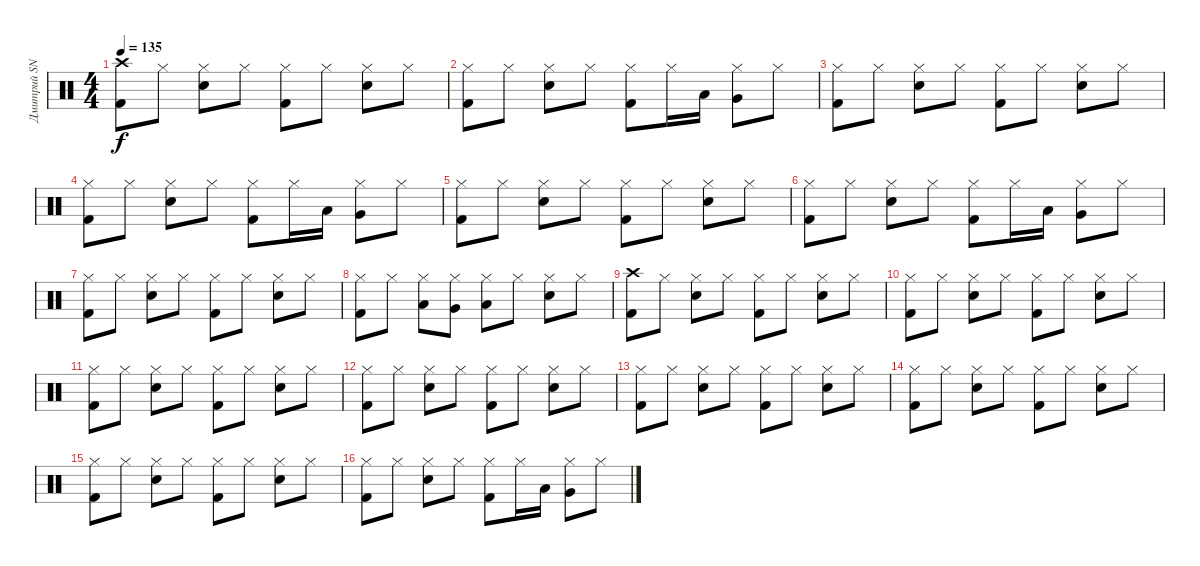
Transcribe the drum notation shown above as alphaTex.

\track ("Дмитрий SNAKE Хакимов" "Дмитрий SN") {instrument percussion}
\staff {score}
\articulation defaults
\ts (4 4)
\tempo 135
\clef neutral
\ks c
("Crash high (hit)" "Kick (hit) 2").8{dy f} "Hi-Hat (closed)".8 ("Hi-Hat (closed)" "Electric Snare (hit)").8 "Hi-Hat (closed)".8 ("Hi-Hat (closed)" "Kick (hit) 2").8 "Hi-Hat (closed)".8 ("Hi-Hat (closed)" "Electric Snare (hit)").8 "Hi-Hat (closed)".8 |
("Hi-Hat (closed)" "Kick (hit) 2").8 "Hi-Hat (closed)".8 ("Hi-Hat (closed)" "Electric Snare (hit)").8 "Hi-Hat (closed)".8 ("Hi-Hat (closed)" "Kick (hit) 2").8 "Hi-Hat (closed)".16 "Low Tom (hit)".16 ("Hi-Hat (closed)" "Very Low Tom (hit)").8 "Hi-Hat (closed)".8 |
("Hi-Hat (closed)" "Kick (hit) 2").8 "Hi-Hat (closed)".8 ("Hi-Hat (closed)" "Electric Snare (hit)").8 "Hi-Hat (closed)".8 ("Hi-Hat (closed)" "Kick (hit) 2").8 "Hi-Hat (closed)".8 ("Hi-Hat (closed)" "Electric Snare (hit)").8 "Hi-Hat (closed)".8 |
("Hi-Hat (closed)" "Kick (hit) 2").8 "Hi-Hat (closed)".8 ("Hi-Hat (closed)" "Electric Snare (hit)").8 "Hi-Hat (closed)".8 ("Hi-Hat (closed)" "Kick (hit) 2").8 "Hi-Hat (closed)".16 "Low Tom (hit)".16 ("Hi-Hat (closed)" "Very Low Tom (hit)").8 "Hi-Hat (closed)".8 |
("Hi-Hat (closed)" "Kick (hit) 2").8 "Hi-Hat (closed)".8 ("Hi-Hat (closed)" "Electric Snare (hit)").8 "Hi-Hat (closed)".8 ("Hi-Hat (closed)" "Kick (hit) 2").8 "Hi-Hat (closed)".8 ("Hi-Hat (closed)" "Electric Snare (hit)").8 "Hi-Hat (closed)".8 |
("Hi-Hat (closed)" "Kick (hit) 2").8 "Hi-Hat (closed)".8 ("Hi-Hat (closed)" "Electric Snare (hit)").8 "Hi-Hat (closed)".8 ("Hi-Hat (closed)" "Kick (hit) 2").8 "Hi-Hat (closed)".16 "Low Tom (hit)".16 ("Hi-Hat (closed)" "Very Low Tom (hit)").8 "Hi-Hat (closed)".8 |
("Hi-Hat (closed)" "Kick (hit) 2").8 "Hi-Hat (closed)".8 ("Hi-Hat (closed)" "Electric Snare (hit)").8 "Hi-Hat (closed)".8 ("Hi-Hat (closed)" "Kick (hit) 2").8 "Hi-Hat (closed)".8 ("Hi-Hat (closed)" "Electric Snare (hit)").8 "Hi-Hat (closed)".8 |
("Hi-Hat (closed)" "Kick (hit) 2").8 "Hi-Hat (closed)".8 ("Hi-Hat (closed)" "Low Tom (hit)").8 ("Hi-Hat (closed)" "Very Low Tom (hit)").8 ("Hi-Hat (closed)" "Low Floor Tom (hit)").8 "Hi-Hat (closed)".8 ("Hi-Hat (closed)" "Electric Snare (hit)").8 "Hi-Hat (closed)".8 |
("Crash high (hit)" "Kick (hit) 2").8 "Hi-Hat (closed)".8 ("Hi-Hat (closed)" "Electric Snare (hit)").8 "Hi-Hat (closed)".8 ("Hi-Hat (closed)" "Kick (hit) 2").8 "Hi-Hat (closed)".8 ("Hi-Hat (closed)" "Electric Snare (hit)").8 "Hi-Hat (closed)".8 |
("Hi-Hat (closed)" "Kick (hit) 2").8 "Hi-Hat (closed)".8 ("Hi-Hat (closed)" "Electric Snare (hit)").8 "Hi-Hat (closed)".8 ("Hi-Hat (closed)" "Kick (hit) 2").8 "Hi-Hat (closed)".8 ("Hi-Hat (closed)" "Electric Snare (hit)").8 "Hi-Hat (closed)".8 |
("Hi-Hat (closed)" "Kick (hit) 2").8 "Hi-Hat (closed)".8 ("Hi-Hat (closed)" "Electric Snare (hit)").8 "Hi-Hat (closed)".8 ("Hi-Hat (closed)" "Kick (hit) 2").8 "Hi-Hat (closed)".8 ("Hi-Hat (closed)" "Electric Snare (hit)").8 "Hi-Hat (closed)".8 |
("Hi-Hat (closed)" "Kick (hit) 2").8 "Hi-Hat (closed)".8 ("Hi-Hat (closed)" "Electric Snare (hit)").8 "Hi-Hat (closed)".8 ("Hi-Hat (closed)" "Kick (hit) 2").8 "Hi-Hat (closed)".8 ("Hi-Hat (closed)" "Electric Snare (hit)").8 "Hi-Hat (closed)".8 |
("Hi-Hat (closed)" "Kick (hit) 2").8 "Hi-Hat (closed)".8 ("Hi-Hat (closed)" "Electric Snare (hit)").8 "Hi-Hat (closed)".8 ("Hi-Hat (closed)" "Kick (hit) 2").8 "Hi-Hat (closed)".8 ("Hi-Hat (closed)" "Electric Snare (hit)").8 "Hi-Hat (closed)".8 |
("Hi-Hat (closed)" "Kick (hit) 2").8 "Hi-Hat (closed)".8 ("Hi-Hat (closed)" "Electric Snare (hit)").8 "Hi-Hat (closed)".8 ("Hi-Hat (closed)" "Kick (hit) 2").8 "Hi-Hat (closed)".8 ("Hi-Hat (closed)" "Electric Snare (hit)").8 "Hi-Hat (closed)".8 |
("Hi-Hat (closed)" "Kick (hit) 2").8 "Hi-Hat (closed)".8 ("Hi-Hat (closed)" "Electric Snare (hit)").8 "Hi-Hat (closed)".8 ("Hi-Hat (closed)" "Kick (hit) 2").8 "Hi-Hat (closed)".8 ("Hi-Hat (closed)" "Electric Snare (hit)").8 "Hi-Hat (closed)".8 |
("Hi-Hat (closed)" "Kick (hit) 2").8 "Hi-Hat (closed)".8 ("Hi-Hat (closed)" "Electric Snare (hit)").8 "Hi-Hat (closed)".8 ("Hi-Hat (closed)" "Kick (hit) 2").8 "Hi-Hat (closed)".16 "Low Tom (hit)".16 ("Hi-Hat (closed)" "Very Low Tom (hit)").8 "Hi-Hat (closed)".8
